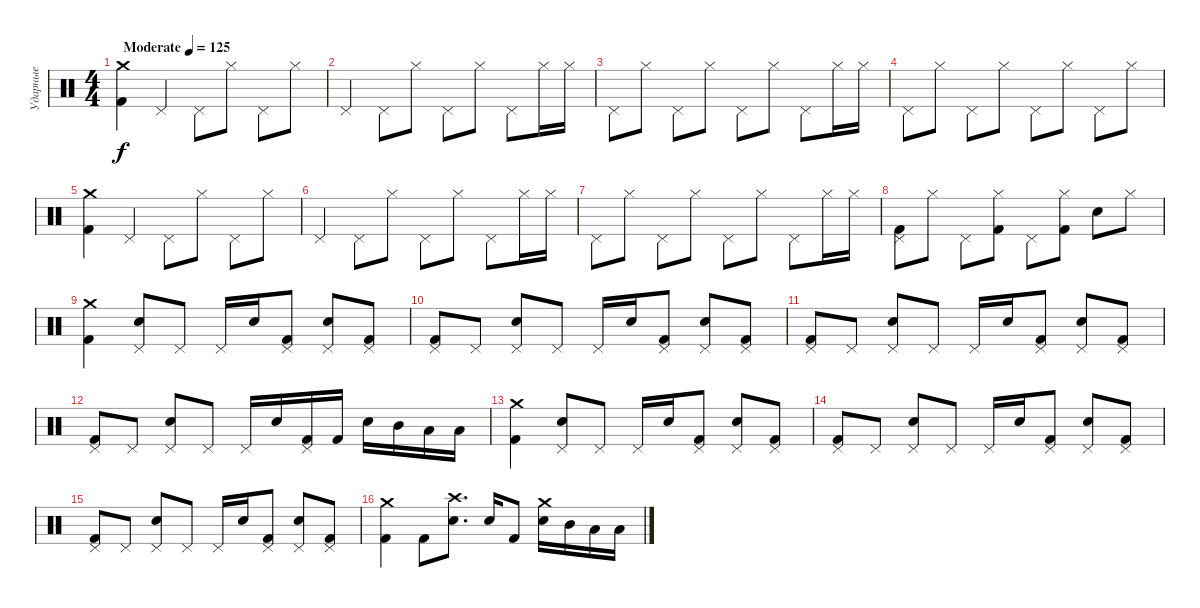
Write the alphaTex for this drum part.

\track ("Ударные" "Ударные") {instrument percussion}
\staff {score}
\articulation defaults
\ts (4 4)
\tempo (125 "Moderate")
\clef neutral
\ks c
("Crash medium (hit)" "Kick (hit) 2").4{dy f} "Pedal Hi-Hat (hit)".4 "Pedal Hi-Hat (hit)".8 "Hi-Hat (closed)".8 "Pedal Hi-Hat (hit)".8 "Hi-Hat (closed)".8 |
"Pedal Hi-Hat (hit)".4 "Pedal Hi-Hat (hit)".8 "Hi-Hat (closed)".8 "Pedal Hi-Hat (hit)".8 "Hi-Hat (closed)".8 "Pedal Hi-Hat (hit)".8 "Hi-Hat (closed)".16 "Hi-Hat (closed)".16 |
"Pedal Hi-Hat (hit)".8 "Hi-Hat (closed)".8 "Pedal Hi-Hat (hit)".8 "Hi-Hat (closed)".8 "Pedal Hi-Hat (hit)".8 "Hi-Hat (closed)".8 "Pedal Hi-Hat (hit)".8 "Hi-Hat (closed)".16 "Hi-Hat (closed)".16 |
"Pedal Hi-Hat (hit)".8 "Hi-Hat (closed)".8 "Pedal Hi-Hat (hit)".8 "Hi-Hat (closed)".8 "Pedal Hi-Hat (hit)".8 "Hi-Hat (closed)".8 "Pedal Hi-Hat (hit)".8 "Hi-Hat (closed)".8 |
("Crash medium (hit)" "Kick (hit) 2").4 "Pedal Hi-Hat (hit)".4 "Pedal Hi-Hat (hit)".8 "Hi-Hat (closed)".8 "Pedal Hi-Hat (hit)".8 "Hi-Hat (closed)".8 |
"Pedal Hi-Hat (hit)".4 "Pedal Hi-Hat (hit)".8 "Hi-Hat (closed)".8 "Pedal Hi-Hat (hit)".8 "Hi-Hat (closed)".8 "Pedal Hi-Hat (hit)".8 "Hi-Hat (closed)".16 "Hi-Hat (closed)".16 |
"Pedal Hi-Hat (hit)".8 "Hi-Hat (closed)".8 "Pedal Hi-Hat (hit)".8 "Hi-Hat (closed)".8 "Pedal Hi-Hat (hit)".8 "Hi-Hat (closed)".8 "Pedal Hi-Hat (hit)".8 "Hi-Hat (closed)".16 "Hi-Hat (closed)".16 |
("Pedal Hi-Hat (hit)" "Kick (hit) 2").8 "Hi-Hat (closed)".8 "Pedal Hi-Hat (hit)".8 ("Hi-Hat (closed)" "Kick (hit) 2").8 "Pedal Hi-Hat (hit)".8 ("Hi-Hat (closed)" "Kick (hit) 2").8 "Snare (hit) 2".8 "Hi-Hat (closed)".8 |
("Crash medium (hit)" "Kick (hit) 2").4 ("Pedal Hi-Hat (hit)" "Snare (hit) 2").8 "Pedal Hi-Hat (hit)".8 "Pedal Hi-Hat (hit)".16 "Snare (hit) 2".16 ("Pedal Hi-Hat (hit)" "Kick (hit) 2").8 ("Pedal Hi-Hat (hit)" "Snare (hit) 2").8 ("Pedal Hi-Hat (hit)" "Kick (hit) 2").8 |
("Pedal Hi-Hat (hit)" "Kick (hit) 2").8 "Pedal Hi-Hat (hit)".8 ("Pedal Hi-Hat (hit)" "Snare (hit) 2").8 "Pedal Hi-Hat (hit)".8 "Pedal Hi-Hat (hit)".16 "Snare (hit) 2".16 ("Pedal Hi-Hat (hit)" "Kick (hit) 2").8 ("Pedal Hi-Hat (hit)" "Snare (hit) 2").8 ("Pedal Hi-Hat (hit)" "Kick (hit) 2").8 |
("Pedal Hi-Hat (hit)" "Kick (hit) 2").8 "Pedal Hi-Hat (hit)".8 ("Pedal Hi-Hat (hit)" "Snare (hit) 2").8 "Pedal Hi-Hat (hit)".8 "Pedal Hi-Hat (hit)".16 "Snare (hit) 2".16 ("Pedal Hi-Hat (hit)" "Kick (hit) 2").8 ("Pedal Hi-Hat (hit)" "Snare (hit) 2").8 ("Pedal Hi-Hat (hit)" "Kick (hit) 2").8 |
("Pedal Hi-Hat (hit)" "Kick (hit) 2").8 "Pedal Hi-Hat (hit)".8 ("Pedal Hi-Hat (hit)" "Snare (hit) 2").8 "Pedal Hi-Hat (hit)".8 "Pedal Hi-Hat (hit)".16 "Snare (hit) 2".16 ("Pedal Hi-Hat (hit)" "Kick (hit) 2").16 "Kick (hit) 2".16 "Snare (hit) 2".16 "Mid Tom (hit)".16 "Low Tom (hit)".16 "Low Floor Tom (hit)".16 |
("Crash medium (hit)" "Kick (hit) 2").4 ("Pedal Hi-Hat (hit)" "Snare (hit) 2").8 "Pedal Hi-Hat (hit)".8 "Pedal Hi-Hat (hit)".16 "Snare (hit) 2".16 ("Pedal Hi-Hat (hit)" "Kick (hit) 2").8 ("Pedal Hi-Hat (hit)" "Snare (hit) 2").8 ("Pedal Hi-Hat (hit)" "Kick (hit) 2").8 |
("Pedal Hi-Hat (hit)" "Kick (hit) 2").8 "Pedal Hi-Hat (hit)".8 ("Pedal Hi-Hat (hit)" "Snare (hit) 2").8 "Pedal Hi-Hat (hit)".8 "Pedal Hi-Hat (hit)".16 "Snare (hit) 2".16 ("Pedal Hi-Hat (hit)" "Kick (hit) 2").8 ("Pedal Hi-Hat (hit)" "Snare (hit) 2").8 ("Pedal Hi-Hat (hit)" "Kick (hit) 2").8 |
("Pedal Hi-Hat (hit)" "Kick (hit) 2").8 "Pedal Hi-Hat (hit)".8 ("Pedal Hi-Hat (hit)" "Snare (hit) 2").8 "Pedal Hi-Hat (hit)".8 "Pedal Hi-Hat (hit)".16 "Snare (hit) 2".16 ("Pedal Hi-Hat (hit)" "Kick (hit) 2").8 ("Pedal Hi-Hat (hit)" "Snare (hit) 2").8 ("Pedal Hi-Hat (hit)" "Kick (hit) 2").8 |
("Crash medium (hit)" "Kick (hit) 2").4 "Kick (hit) 2".8 ("Crash high (hit)" "Snare (hit) 2").8{d} "Snare (hit) 2".16 "Kick (hit) 2".8 ("Crash medium (hit)" "Snare (hit) 2").16 "Mid Tom (hit)".16 "Low Tom (hit)".16 "Low Floor Tom (hit)".16
